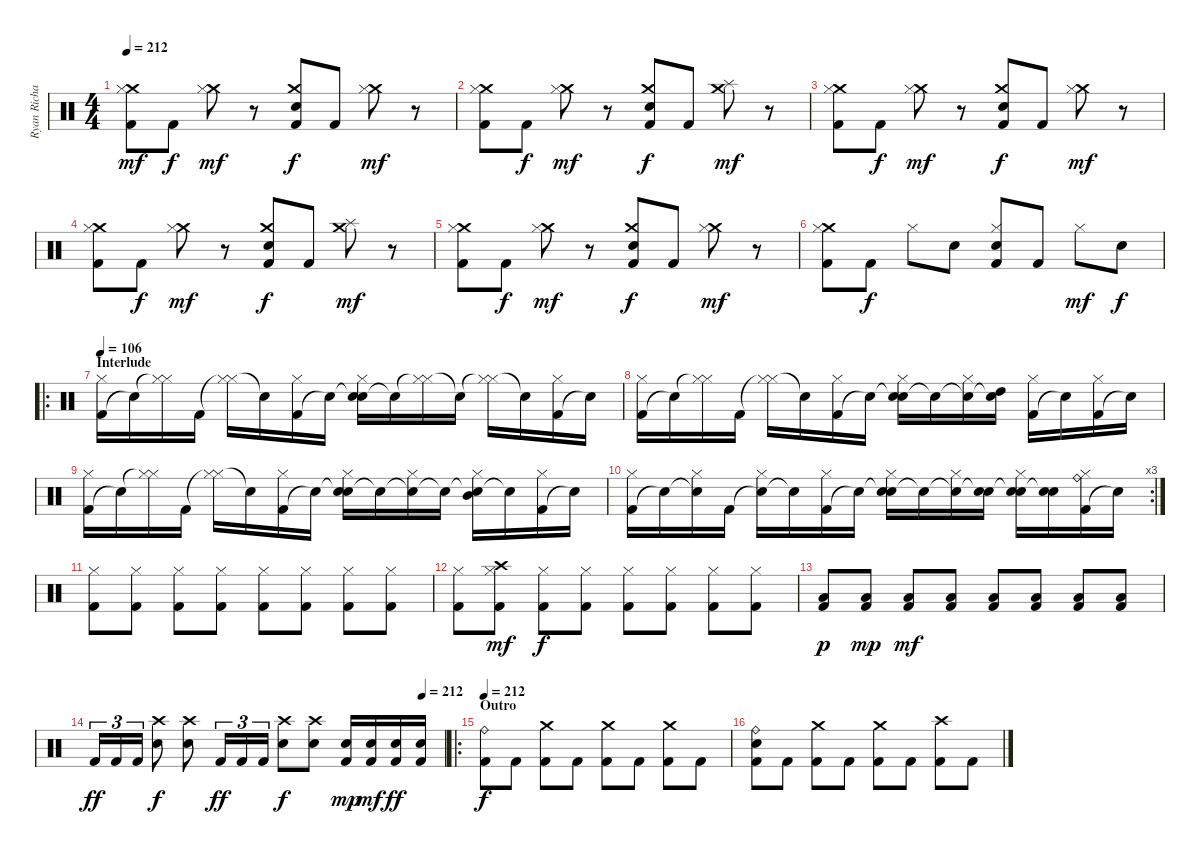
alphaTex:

\track ("Ryan Richards" "Ryan Richa") {instrument percussion}
\staff {score}
\articulation defaults
\ts (4 4)
\tempo 212
\clef neutral
\ks c
("Kick (hit) 2" "Crash medium (hit)" "Hi-Hat (closed)").8{dy mf} "Kick (hit) 2".8{dy f} ("Crash medium (hit)" "Hi-Hat (closed)").8{dy mf} r.8 ("Kick (hit) 2" "Snare (hit) 2" "Crash medium (hit)").8{dy f} "Kick (hit) 2".8 ("Crash medium (hit)" "Hi-Hat (closed)").8{dy mf} r.8 |
("Kick (hit) 2" "Crash medium (hit)" "Hi-Hat (closed)").8 "Kick (hit) 2".8{dy f} ("Crash medium (hit)" "Hi-Hat (closed)").8{dy mf} r.8 ("Kick (hit) 2" "Snare (hit) 2" "Crash medium (hit)").8{dy f} "Kick (hit) 2".8 ("Crash medium (hit)" "Splash (hit)").8{dy mf} r.8 |
("Kick (hit) 2" "Crash medium (hit)" "Hi-Hat (closed)").8 "Kick (hit) 2".8{dy f} ("Crash medium (hit)" "Hi-Hat (closed)").8{dy mf} r.8 ("Kick (hit) 2" "Snare (hit) 2" "Crash medium (hit)").8{dy f} "Kick (hit) 2".8 ("Crash medium (hit)" "Hi-Hat (closed)").8{dy mf} r.8 |
("Kick (hit) 2" "Crash medium (hit)" "Hi-Hat (closed)").8 "Kick (hit) 2".8{dy f} ("Crash medium (hit)" "Hi-Hat (closed)").8{dy mf} r.8 ("Kick (hit) 2" "Snare (hit) 2" "Crash medium (hit)").8{dy f} "Kick (hit) 2".8 ("Crash medium (hit)" "Splash (hit)").8{dy mf} r.8 |
("Kick (hit) 2" "Crash medium (hit)" "Hi-Hat (closed)").8 "Kick (hit) 2".8{dy f} ("Crash medium (hit)" "Hi-Hat (closed)").8{dy mf} r.8 ("Kick (hit) 2" "Snare (hit) 2" "Crash medium (hit)").8{dy f} "Kick (hit) 2".8 ("Crash medium (hit)" "Hi-Hat (closed)").8{dy mf} r.8 |
("Kick (hit) 2" "Crash medium (hit)" "Hi-Hat (closed)").8 "Kick (hit) 2".8{dy f} "Hi-Hat (closed)".8 "Snare (hit) 2".8 ("Kick (hit) 2" "Snare (hit) 2" "Hi-Hat (closed)").8 "Kick (hit) 2".8 "Hi-Hat (closed)".8{dy mf} "Snare (hit) 2".8{dy f} |
\ro
\section ("" "Interlude")
\tempo 106
("Kick (hit) 2" "Hi-Hat (closed)").16 "Snare (hit)"{t}.16 ("Hi-Hat (closed)"{t} "Hi-Hat (closed)").16 "Kick (hit) 2".16 ("Hi-Hat (closed)"{t} "Hi-Hat (closed)").16 "Snare (hit)"{t}.16 ("Kick (hit) 2" "Hi-Hat (closed)").16 "Snare (hit)"{t}.16 ("Snare (hit) 2"{t} "Snare (hit) 2" "Hi-Hat (closed)").16 "Snare (hit)"{t}.16 ("Hi-Hat (closed)"{t} "Hi-Hat (closed)").16 "Snare (hit)"{t}.16 ("Hi-Hat (closed)"{t} "Hi-Hat (closed)").16 "Snare (hit)"{t}.16 ("Kick (hit) 2" "Hi-Hat (closed)").16 "Snare (hit)"{t}.16 |
("Kick (hit) 2" "Hi-Hat (closed)").16 "Snare (hit)"{t}.16 ("Hi-Hat (closed)"{t} "Hi-Hat (closed)").16 "Kick (hit) 2".16 ("Hi-Hat (closed)"{t} "Hi-Hat (closed)").16 "Snare (hit)"{t}.16 ("Kick (hit) 2" "Hi-Hat (closed)").16 "Snare (hit)"{t}.16 ("Snare (hit) 2"{t} "Snare (hit) 2" "Hi-Hat (closed)").16 "Snare (hit)"{t}.16 ("Snare (hit)"{t} "Hi-Hat (closed)").16 ("Snare (hit)"{t} "High Tom (hit)").16 ("Kick (hit) 2" "Hi-Hat (closed)").16 "Snare (hit)"{t}.16 ("Kick (hit) 2" "Hi-Hat (closed)").16 "Snare (hit)"{t}.16 |
("Kick (hit) 2" "Hi-Hat (closed)").16 "Snare (hit)"{t}.16 ("Hi-Hat (closed)"{t} "Hi-Hat (closed)").16 "Kick (hit) 2".16 ("Hi-Hat (closed)"{t} "Hi-Hat (closed)").16 "Snare (hit)"{t}.16 ("Kick (hit) 2" "Hi-Hat (closed)").16 "Snare (hit)"{t}.16 ("Snare (hit) 2"{t} "Snare (hit) 2" "Hi-Hat (closed)").16 "Snare (hit)"{t}.16 ("Snare (hit)"{t} "Hi-Hat (closed)").16 "Snare (hit)"{t}.16 ("Snare (hit)"{t} "Mid Tom (hit)" "Hi-Hat (closed)").16 "Snare (hit)"{t}.16 ("Kick (hit) 2" "Hi-Hat (closed)").16 "Snare (hit)"{t}.16 |
\rc 3
("Kick (hit) 2" "Hi-Hat (closed)").16 "Snare (hit)"{t}.16 ("Snare (hit)"{t} "Hi-Hat (closed)").16 "Kick (hit) 2".16 ("Snare (hit)"{t} "Hi-Hat (closed)").16 "Snare (hit)"{t}.16 ("Kick (hit) 2" "Hi-Hat (closed)").16 "Snare (hit)"{t}.16 ("Snare (hit)"{t} "Snare (hit) 2" "Hi-Hat (closed)").16 "Snare (hit)"{t}.16 ("Snare (hit)"{t} "Hi-Hat (closed)").16 ("Snare (hit)"{t} "Snare (hit) 2").16 ("Snare (hit)"{t} "Snare (hit) 2" "Hi-Hat (closed)").16 ("Snare (hit)"{t} "Snare (hit) 2").16 ("Kick (hit) 2" "Ride (bell)" "Hi-Hat (closed)").16 "Snare (hit)"{t}.16 |
("Kick (hit) 2" "Hi-Hat (closed)").8 ("Kick (hit) 2" "Hi-Hat (closed)").8 ("Kick (hit) 2" "Hi-Hat (closed)").8 ("Kick (hit) 2" "Hi-Hat (closed)").8 ("Kick (hit) 2" "Hi-Hat (closed)").8 ("Kick (hit) 2" "Hi-Hat (closed)").8 ("Kick (hit) 2" "Hi-Hat (closed)").8 ("Kick (hit) 2" "Hi-Hat (closed)").8 |
("Kick (hit) 2" "Hi-Hat (closed)").8 ("Kick (hit) 2" "Crash high (hit)" "Hi-Hat (closed)").8{dy mf} ("Kick (hit) 2" "Hi-Hat (closed)").8{dy f} ("Kick (hit) 2" "Hi-Hat (closed)").8 ("Kick (hit) 2" "Hi-Hat (closed)").8 ("Kick (hit) 2" "Hi-Hat (closed)").8 ("Kick (hit) 2" "Hi-Hat (closed)").8 ("Kick (hit) 2" "Hi-Hat (closed)").8 |
("Kick (hit) 2" "Low Floor Tom (hit)").8{dy p} ("Kick (hit) 2" "Low Floor Tom (hit)").8{dy mp} ("Kick (hit) 2" "Low Floor Tom (hit)").8{dy mf} ("Kick (hit) 2" "Low Floor Tom (hit)").8 ("Kick (hit) 2" "Low Floor Tom (hit)").8 ("Kick (hit) 2" "Low Floor Tom (hit)").8 ("Kick (hit) 2" "Low Floor Tom (hit)").8 ("Kick (hit) 2" "Low Floor Tom (hit)").8 |
\tempo (212 0.9375)
"Kick (hit) 2".16{tu (3 2) dy ff} "Kick (hit) 2".16{tu (3 2)} "Kick (hit) 2".16{tu (3 2)} ("Snare (hit) 2" "Crash high (hit)").8{dy f} ("Snare (hit) 2" "Crash high (hit)").8 "Kick (hit) 2".16{tu (3 2) dy ff} "Kick (hit) 2".16{tu (3 2)} "Kick (hit) 2".16{tu (3 2)} ("Snare (hit) 2" "Crash high (hit)").8{dy f} ("Snare (hit) 2" "Crash high (hit)").8 ("Kick (hit) 2" "Snare (hit) 2").16{dy mp} ("Kick (hit) 2" "Snare (hit) 2").16{dy mf} ("Kick (hit) 2" "Snare (hit) 2").16{dy ff} ("Kick (hit) 2" "Snare (hit) 2").16 |
\ro
\section ("" "Outro")
\tempo 212
("Kick (hit) 2" "Ride (bell)").8{dy f volume 10} "Kick (hit) 2".8 ("Kick (hit) 2" "Crash medium (hit)").8 "Kick (hit) 2".8 ("Kick (hit) 2" "Crash medium (hit)").8 "Kick (hit) 2".8 ("Kick (hit) 2" "Crash medium (hit)").8 "Kick (hit) 2".8 |
("Kick (hit) 2" "Snare (hit) 2" "Ride (bell)").8 "Kick (hit) 2".8 ("Kick (hit) 2" "Crash medium (hit)").8 "Kick (hit) 2".8 ("Kick (hit) 2" "Crash medium (hit)").8 "Kick (hit) 2".8 ("Kick (hit) 2" "Crash high (hit)").8 "Kick (hit) 2".8
